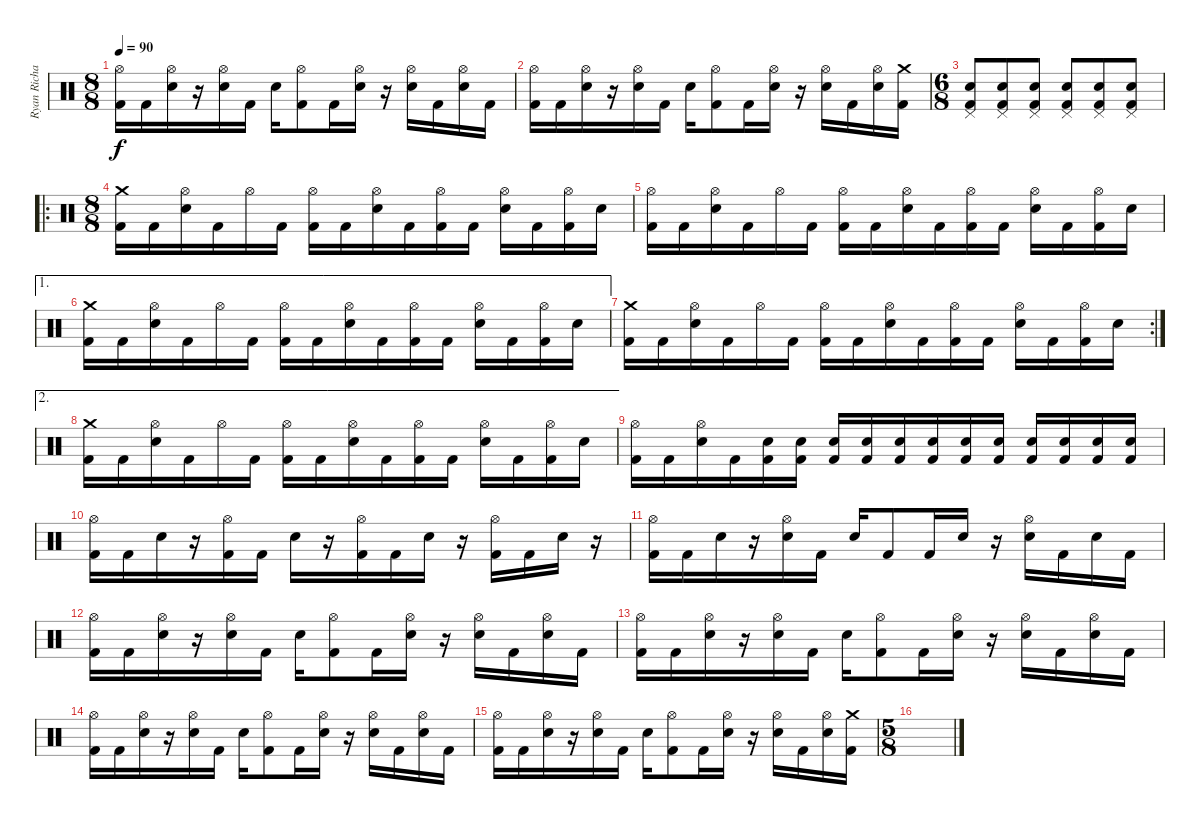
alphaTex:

\track ("Ryan Richards" "Ryan Richa") {instrument percussion}
\staff {score}
\articulation defaults
\ts (8 8)
\tempo 90
\clef neutral
\ks c
("Hi-Hat (open)" "Kick (hit) 2").16{dy f} "Kick (hit) 2".16 ("Hi-Hat (open)" "Snare (hit) 2").16 r.16 ("Hi-Hat (open)" "Snare (hit) 2").16 "Kick (hit) 2".16 "Snare (hit) 2".16 ("Hi-Hat (open)" "Kick (hit) 2").8 "Kick (hit) 2".16 ("Hi-Hat (open)" "Snare (hit) 2").16 r.16 ("Hi-Hat (open)" "Snare (hit) 2").16 "Kick (hit) 2".16 ("Hi-Hat (open)" "Snare (hit) 2").16 "Kick (hit) 2".16 |
("Hi-Hat (open)" "Kick (hit) 2").16 "Kick (hit) 2".16 ("Hi-Hat (open)" "Snare (hit) 2").16 r.16 ("Hi-Hat (open)" "Snare (hit) 2").16 "Kick (hit) 2".16 "Snare (hit) 2".16 ("Hi-Hat (open)" "Kick (hit) 2").8 "Kick (hit) 2".16 ("Hi-Hat (open)" "Snare (hit) 2").16 r.16 ("Hi-Hat (open)" "Snare (hit) 2").16 "Kick (hit) 2".16 ("Hi-Hat (open)" "Snare (hit) 2").16 ("Crash medium (hit)" "Kick (hit) 2").16 |
\ts (6 8)
("Pedal Hi-Hat (hit)" "Snare (hit) 2" "Kick (hit) 2").8 ("Pedal Hi-Hat (hit)" "Snare (hit) 2" "Kick (hit) 2").8 ("Pedal Hi-Hat (hit)" "Snare (hit) 2" "Kick (hit) 2").8 ("Pedal Hi-Hat (hit)" "Snare (hit) 2" "Kick (hit) 2").8 ("Pedal Hi-Hat (hit)" "Snare (hit) 2" "Kick (hit) 2").8 ("Pedal Hi-Hat (hit)" "Snare (hit) 2" "Kick (hit) 2").8 |
\ro
\ts (8 8)
("Crash medium (hit)" "Kick (hit) 2").16 "Kick (hit) 2".16 ("Hi-Hat (open)" "Snare (hit) 2").16 "Kick (hit) 2".16 "Hi-Hat (open)".16 "Kick (hit) 2".16 ("Hi-Hat (open)" "Kick (hit) 2").16 "Kick (hit) 2".16 ("Hi-Hat (open)" "Snare (hit) 2").16 "Kick (hit) 2".16 ("Hi-Hat (open)" "Kick (hit) 2").16 "Kick (hit) 2".16 ("Hi-Hat (open)" "Snare (hit) 2").16 "Kick (hit) 2".16 ("Hi-Hat (open)" "Kick (hit) 2").16 "Snare (hit) 2".16 |
("Hi-Hat (open)" "Kick (hit) 2").16 "Kick (hit) 2".16 ("Hi-Hat (open)" "Snare (hit) 2").16 "Kick (hit) 2".16 "Hi-Hat (open)".16 "Kick (hit) 2".16 ("Hi-Hat (open)" "Kick (hit) 2").16 "Kick (hit) 2".16 ("Hi-Hat (open)" "Snare (hit) 2").16 "Kick (hit) 2".16 ("Hi-Hat (open)" "Kick (hit) 2").16 "Kick (hit) 2".16 ("Hi-Hat (open)" "Snare (hit) 2").16 "Kick (hit) 2".16 ("Hi-Hat (open)" "Kick (hit) 2").16 "Snare (hit) 2".16 |
\ae 1
("Crash medium (hit)" "Kick (hit) 2").16 "Kick (hit) 2".16 ("Hi-Hat (open)" "Snare (hit) 2").16 "Kick (hit) 2".16 "Hi-Hat (open)".16 "Kick (hit) 2".16 ("Hi-Hat (open)" "Kick (hit) 2").16 "Kick (hit) 2".16 ("Hi-Hat (open)" "Snare (hit) 2").16 "Kick (hit) 2".16 ("Hi-Hat (open)" "Kick (hit) 2").16 "Kick (hit) 2".16 ("Hi-Hat (open)" "Snare (hit) 2").16 "Kick (hit) 2".16 ("Hi-Hat (open)" "Kick (hit) 2").16 "Snare (hit) 2".16 |
\rc 2
("Crash medium (hit)" "Kick (hit) 2").16 "Kick (hit) 2".16 ("Hi-Hat (open)" "Snare (hit) 2").16 "Kick (hit) 2".16 "Hi-Hat (open)".16 "Kick (hit) 2".16 ("Hi-Hat (open)" "Kick (hit) 2").16 "Kick (hit) 2".16 ("Hi-Hat (open)" "Snare (hit) 2").16 "Kick (hit) 2".16 ("Hi-Hat (open)" "Kick (hit) 2").16 "Kick (hit) 2".16 ("Hi-Hat (open)" "Snare (hit) 2").16 "Kick (hit) 2".16 ("Hi-Hat (open)" "Kick (hit) 2").16 "Snare (hit) 2".16 |
\ae 2
("Crash medium (hit)" "Kick (hit) 2").16 "Kick (hit) 2".16 ("Hi-Hat (open)" "Snare (hit) 2").16 "Kick (hit) 2".16 "Hi-Hat (open)".16 "Kick (hit) 2".16 ("Hi-Hat (open)" "Kick (hit) 2").16 "Kick (hit) 2".16 ("Hi-Hat (open)" "Snare (hit) 2").16 "Kick (hit) 2".16 ("Hi-Hat (open)" "Kick (hit) 2").16 "Kick (hit) 2".16 ("Hi-Hat (open)" "Snare (hit) 2").16 "Kick (hit) 2".16 ("Hi-Hat (open)" "Kick (hit) 2").16 "Snare (hit) 2".16 |
("Hi-Hat (open)" "Kick (hit) 2").16 "Kick (hit) 2".16 ("Hi-Hat (open)" "Snare (hit) 2").16 "Kick (hit) 2".16 ("Snare (hit) 2" "Kick (hit) 2").16 ("Snare (hit) 2" "Kick (hit) 2").16 ("Snare (hit) 2" "Kick (hit) 2").16 ("Snare (hit) 2" "Kick (hit) 2").16 ("Snare (hit) 2" "Kick (hit) 2").16 ("Snare (hit) 2" "Kick (hit) 2").16 ("Snare (hit) 2" "Kick (hit) 2").16 ("Snare (hit) 2" "Kick (hit) 2").16 ("Snare (hit) 2" "Kick (hit) 2").16 ("Snare (hit) 2" "Kick (hit) 2").16 ("Snare (hit) 2" "Kick (hit) 2").16 ("Snare (hit) 2" "Kick (hit) 2").16 |
("Hi-Hat (open)" "Kick (hit) 2").16 "Kick (hit) 2".16 "Snare (hit) 2".16 r.16 ("Hi-Hat (open)" "Kick (hit) 2").16 "Kick (hit) 2".16 "Snare (hit) 2".16 r.16 ("Hi-Hat (open)" "Kick (hit) 2").16 "Kick (hit) 2".16 "Snare (hit) 2".16 r.16 ("Hi-Hat (open)" "Kick (hit) 2").16 "Kick (hit) 2".16 "Snare (hit) 2".16 r.16 |
("Hi-Hat (open)" "Kick (hit) 2").16 "Kick (hit) 2".16 "Snare (hit) 2".16 r.16 ("Hi-Hat (open)" "Snare (hit) 2").16 "Kick (hit) 2".16 "Snare (hit) 2".16 "Kick (hit) 2".8 "Kick (hit) 2".16 "Snare (hit) 2".16 r.16 ("Hi-Hat (open)" "Snare (hit) 2").16 "Kick (hit) 2".16 "Snare (hit) 2".16 "Kick (hit) 2".16 |
("Hi-Hat (open)" "Kick (hit) 2").16 "Kick (hit) 2".16 ("Hi-Hat (open)" "Snare (hit) 2").16 r.16 ("Hi-Hat (open)" "Snare (hit) 2").16 "Kick (hit) 2".16 "Snare (hit) 2".16 ("Hi-Hat (open)" "Kick (hit) 2").8 "Kick (hit) 2".16 ("Hi-Hat (open)" "Snare (hit) 2").16 r.16 ("Hi-Hat (open)" "Snare (hit) 2").16 "Kick (hit) 2".16 ("Hi-Hat (open)" "Snare (hit) 2").16 "Kick (hit) 2".16 |
("Hi-Hat (open)" "Kick (hit) 2").16 "Kick (hit) 2".16 ("Hi-Hat (open)" "Snare (hit) 2").16 r.16 ("Hi-Hat (open)" "Snare (hit) 2").16 "Kick (hit) 2".16 "Snare (hit) 2".16 ("Hi-Hat (open)" "Kick (hit) 2").8 "Kick (hit) 2".16 ("Hi-Hat (open)" "Snare (hit) 2").16 r.16 ("Hi-Hat (open)" "Snare (hit) 2").16 "Kick (hit) 2".16 ("Hi-Hat (open)" "Snare (hit) 2").16 "Kick (hit) 2".16 |
("Hi-Hat (open)" "Kick (hit) 2").16 "Kick (hit) 2".16 ("Hi-Hat (open)" "Snare (hit) 2").16 r.16 ("Hi-Hat (open)" "Snare (hit) 2").16 "Kick (hit) 2".16 "Snare (hit) 2".16 ("Hi-Hat (open)" "Kick (hit) 2").8 "Kick (hit) 2".16 ("Hi-Hat (open)" "Snare (hit) 2").16 r.16 ("Hi-Hat (open)" "Snare (hit) 2").16 "Kick (hit) 2".16 ("Hi-Hat (open)" "Snare (hit) 2").16 "Kick (hit) 2".16 |
("Hi-Hat (open)" "Kick (hit) 2").16 "Kick (hit) 2".16 ("Hi-Hat (open)" "Snare (hit) 2").16 r.16 ("Hi-Hat (open)" "Snare (hit) 2").16 "Kick (hit) 2".16 "Snare (hit) 2".16 ("Hi-Hat (open)" "Kick (hit) 2").8 "Kick (hit) 2".16 ("Hi-Hat (open)" "Snare (hit) 2").16 r.16 ("Hi-Hat (open)" "Snare (hit) 2").16 "Kick (hit) 2".16 ("Hi-Hat (open)" "Snare (hit) 2").16 ("Crash medium (hit)" "Kick (hit) 2").16 |
\ts (5 8)
